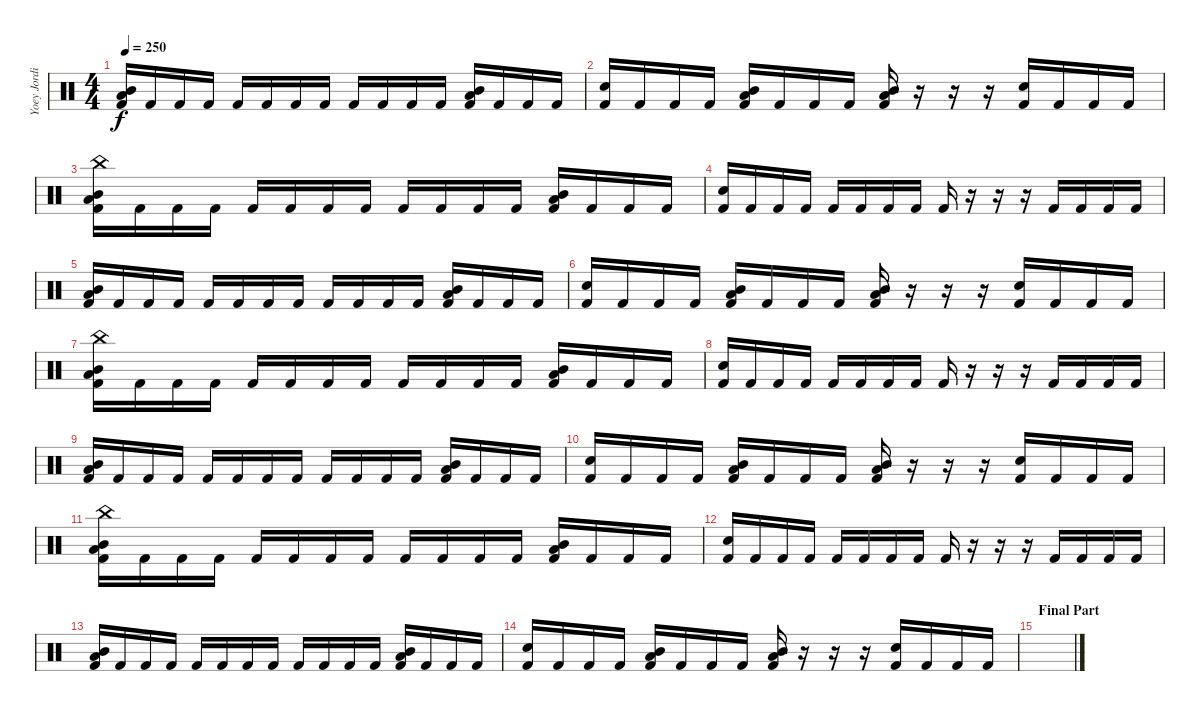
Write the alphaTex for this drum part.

\track ("Yoey Jordison" "Yoey Jordi") {instrument percussion}
\staff {score}
\articulation defaults
\ts (4 4)
\tempo 250
\clef neutral
\ks c
("Mid Tom (hit)" "Kick (hit) 2" "Low Floor Tom (hit)").16{dy f} "Kick (hit) 2".16 "Kick (hit) 2".16 "Kick (hit) 2".16 "Kick (hit) 2".16 "Kick (hit) 2".16 "Kick (hit) 2".16 "Kick (hit) 2".16 "Kick (hit) 2".16 "Kick (hit) 2".16 "Kick (hit) 2".16 "Kick (hit) 2".16 ("Mid Tom (hit)" "Kick (hit) 2" "Low Floor Tom (hit)").16 "Kick (hit) 2".16 "Kick (hit) 2".16 "Kick (hit) 2".16 |
("Kick (hit) 2" "Snare (hit) 2").16 "Kick (hit) 2".16 "Kick (hit) 2".16 "Kick (hit) 2".16 ("Mid Tom (hit)" "Kick (hit) 2" "Low Floor Tom (hit)").16 "Kick (hit) 2".16 "Kick (hit) 2".16 "Kick (hit) 2".16 ("Mid Tom (hit)" "Kick (hit) 2" "Low Floor Tom (hit)").16 r.16 r.16 r.16 ("Kick (hit) 2" "Snare (hit) 2").16 "Kick (hit) 2".16 "Kick (hit) 2".16 "Kick (hit) 2".16 |
("China (hit)" "Mid Tom (hit)" "Kick (hit) 2" "Low Floor Tom (hit)").16 "Kick (hit) 2".16 "Kick (hit) 2".16 "Kick (hit) 2".16 "Kick (hit) 2".16 "Kick (hit) 2".16 "Kick (hit) 2".16 "Kick (hit) 2".16 "Kick (hit) 2".16 "Kick (hit) 2".16 "Kick (hit) 2".16 "Kick (hit) 2".16 ("Mid Tom (hit)" "Kick (hit) 2" "Low Floor Tom (hit)").16 "Kick (hit) 2".16 "Kick (hit) 2".16 "Kick (hit) 2".16 |
("Kick (hit) 2" "Snare (hit) 2").16 "Kick (hit) 2".16 "Kick (hit) 2".16 "Kick (hit) 2".16 "Kick (hit) 2".16 "Kick (hit) 2".16 "Kick (hit) 2".16 "Kick (hit) 2".16 "Kick (hit) 2".16 r.16 r.16 r.16 "Kick (hit) 2".16 "Kick (hit) 2".16 "Kick (hit) 2".16 "Kick (hit) 2".16 |
("Mid Tom (hit)" "Kick (hit) 2" "Low Floor Tom (hit)").16 "Kick (hit) 2".16 "Kick (hit) 2".16 "Kick (hit) 2".16 "Kick (hit) 2".16 "Kick (hit) 2".16 "Kick (hit) 2".16 "Kick (hit) 2".16 "Kick (hit) 2".16 "Kick (hit) 2".16 "Kick (hit) 2".16 "Kick (hit) 2".16 ("Mid Tom (hit)" "Kick (hit) 2" "Low Floor Tom (hit)").16 "Kick (hit) 2".16 "Kick (hit) 2".16 "Kick (hit) 2".16 |
("Kick (hit) 2" "Snare (hit) 2").16 "Kick (hit) 2".16 "Kick (hit) 2".16 "Kick (hit) 2".16 ("Mid Tom (hit)" "Kick (hit) 2" "Low Floor Tom (hit)").16 "Kick (hit) 2".16 "Kick (hit) 2".16 "Kick (hit) 2".16 ("Mid Tom (hit)" "Kick (hit) 2" "Low Floor Tom (hit)").16 r.16 r.16 r.16 ("Kick (hit) 2" "Snare (hit) 2").16 "Kick (hit) 2".16 "Kick (hit) 2".16 "Kick (hit) 2".16 |
("China (hit)" "Mid Tom (hit)" "Kick (hit) 2" "Low Floor Tom (hit)").16 "Kick (hit) 2".16 "Kick (hit) 2".16 "Kick (hit) 2".16 "Kick (hit) 2".16 "Kick (hit) 2".16 "Kick (hit) 2".16 "Kick (hit) 2".16 "Kick (hit) 2".16 "Kick (hit) 2".16 "Kick (hit) 2".16 "Kick (hit) 2".16 ("Mid Tom (hit)" "Kick (hit) 2" "Low Floor Tom (hit)").16 "Kick (hit) 2".16 "Kick (hit) 2".16 "Kick (hit) 2".16 |
("Kick (hit) 2" "Snare (hit) 2").16 "Kick (hit) 2".16 "Kick (hit) 2".16 "Kick (hit) 2".16 "Kick (hit) 2".16 "Kick (hit) 2".16 "Kick (hit) 2".16 "Kick (hit) 2".16 "Kick (hit) 2".16 r.16 r.16 r.16 "Kick (hit) 2".16 "Kick (hit) 2".16 "Kick (hit) 2".16 "Kick (hit) 2".16 |
("Mid Tom (hit)" "Kick (hit) 2" "Low Floor Tom (hit)").16 "Kick (hit) 2".16 "Kick (hit) 2".16 "Kick (hit) 2".16 "Kick (hit) 2".16 "Kick (hit) 2".16 "Kick (hit) 2".16 "Kick (hit) 2".16 "Kick (hit) 2".16 "Kick (hit) 2".16 "Kick (hit) 2".16 "Kick (hit) 2".16 ("Mid Tom (hit)" "Kick (hit) 2" "Low Floor Tom (hit)").16 "Kick (hit) 2".16 "Kick (hit) 2".16 "Kick (hit) 2".16 |
("Kick (hit) 2" "Snare (hit) 2").16 "Kick (hit) 2".16 "Kick (hit) 2".16 "Kick (hit) 2".16 ("Mid Tom (hit)" "Kick (hit) 2" "Low Floor Tom (hit)").16 "Kick (hit) 2".16 "Kick (hit) 2".16 "Kick (hit) 2".16 ("Mid Tom (hit)" "Kick (hit) 2" "Low Floor Tom (hit)").16 r.16 r.16 r.16 ("Kick (hit) 2" "Snare (hit) 2").16 "Kick (hit) 2".16 "Kick (hit) 2".16 "Kick (hit) 2".16 |
("China (hit)" "Mid Tom (hit)" "Kick (hit) 2" "Low Floor Tom (hit)").16 "Kick (hit) 2".16 "Kick (hit) 2".16 "Kick (hit) 2".16 "Kick (hit) 2".16 "Kick (hit) 2".16 "Kick (hit) 2".16 "Kick (hit) 2".16 "Kick (hit) 2".16 "Kick (hit) 2".16 "Kick (hit) 2".16 "Kick (hit) 2".16 ("Mid Tom (hit)" "Kick (hit) 2" "Low Floor Tom (hit)").16 "Kick (hit) 2".16 "Kick (hit) 2".16 "Kick (hit) 2".16 |
("Kick (hit) 2" "Snare (hit) 2").16 "Kick (hit) 2".16 "Kick (hit) 2".16 "Kick (hit) 2".16 "Kick (hit) 2".16 "Kick (hit) 2".16 "Kick (hit) 2".16 "Kick (hit) 2".16 "Kick (hit) 2".16 r.16 r.16 r.16 "Kick (hit) 2".16 "Kick (hit) 2".16 "Kick (hit) 2".16 "Kick (hit) 2".16 |
("Mid Tom (hit)" "Kick (hit) 2" "Low Floor Tom (hit)").16 "Kick (hit) 2".16 "Kick (hit) 2".16 "Kick (hit) 2".16 "Kick (hit) 2".16 "Kick (hit) 2".16 "Kick (hit) 2".16 "Kick (hit) 2".16 "Kick (hit) 2".16 "Kick (hit) 2".16 "Kick (hit) 2".16 "Kick (hit) 2".16 ("Mid Tom (hit)" "Kick (hit) 2" "Low Floor Tom (hit)").16 "Kick (hit) 2".16 "Kick (hit) 2".16 "Kick (hit) 2".16 |
("Kick (hit) 2" "Snare (hit) 2").16 "Kick (hit) 2".16 "Kick (hit) 2".16 "Kick (hit) 2".16 ("Mid Tom (hit)" "Kick (hit) 2" "Low Floor Tom (hit)").16 "Kick (hit) 2".16 "Kick (hit) 2".16 "Kick (hit) 2".16 ("Mid Tom (hit)" "Kick (hit) 2" "Low Floor Tom (hit)").16 r.16 r.16 r.16 ("Kick (hit) 2" "Snare (hit) 2").16 "Kick (hit) 2".16 "Kick (hit) 2".16 "Kick (hit) 2".16 |
\section ("" "Final Part")
